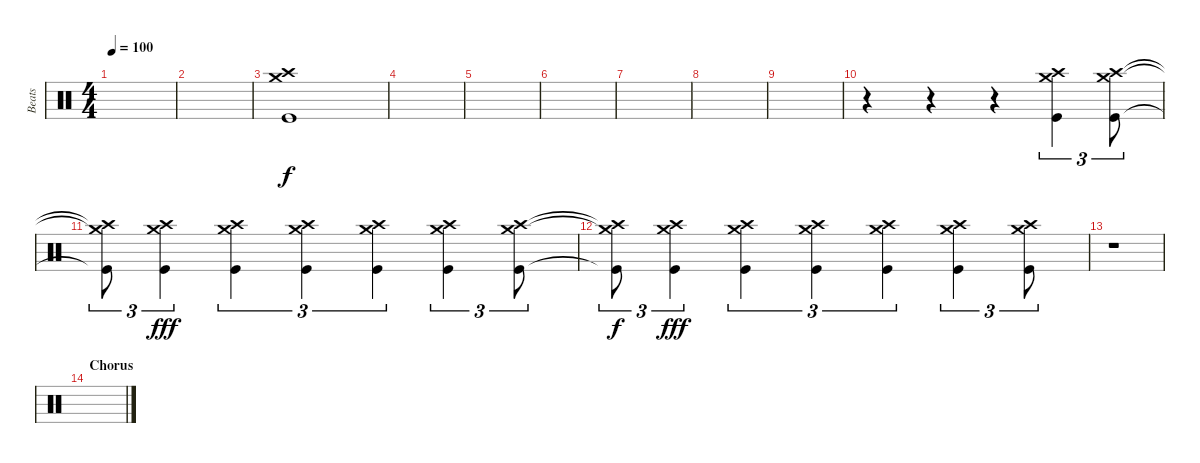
\track ("Beats" "Beats") {instrument percussion}
\staff {score}
\articulation defaults
\ts (4 4)
\tempo 100
\clef neutral
\ks c
|
|
("Crash medium (hit)" "Crash high (hit)" "Kick (hit)").1 |
|
|
|
|
|
|
r.4 r.4 r.4 ("Crash medium (hit)" "Crash high (hit)" "Kick (hit)").4{tu (3 2)} ("Crash medium (hit)" "Crash high (hit)" "Kick (hit)").8{tu (3 2)} |
("Crash medium (hit)"{t} "Crash high (hit)"{t} "Kick (hit)"{t}).8{tu (3 2) dy f} ("Crash medium (hit)" "Crash high (hit)" "Kick (hit)").4{tu (3 2) dy fff} ("Crash medium (hit)" "Crash high (hit)" "Kick (hit)").4{tu (3 2)} ("Crash medium (hit)" "Crash high (hit)" "Kick (hit)").4{tu (3 2)} ("Crash medium (hit)" "Crash high (hit)" "Kick (hit)").4{tu (3 2)} ("Crash medium (hit)" "Crash high (hit)" "Kick (hit)").4{tu (3 2)} ("Crash medium (hit)" "Crash high (hit)" "Kick (hit)").8{tu (3 2)} |
("Crash medium (hit)"{t} "Crash high (hit)"{t} "Kick (hit)"{t}).8{tu (3 2) dy f} ("Crash medium (hit)" "Crash high (hit)" "Kick (hit)").4{tu (3 2) dy fff} ("Crash medium (hit)" "Crash high (hit)" "Kick (hit)").4{tu (3 2)} ("Crash medium (hit)" "Crash high (hit)" "Kick (hit)").4{tu (3 2)} ("Crash medium (hit)" "Crash high (hit)" "Kick (hit)").4{tu (3 2)} ("Crash medium (hit)" "Crash high (hit)" "Kick (hit)").4{tu (3 2)} ("Crash medium (hit)" "Crash high (hit)" "Kick (hit)").8{tu (3 2)} |
r.1 |
\section ("" "Chorus")
